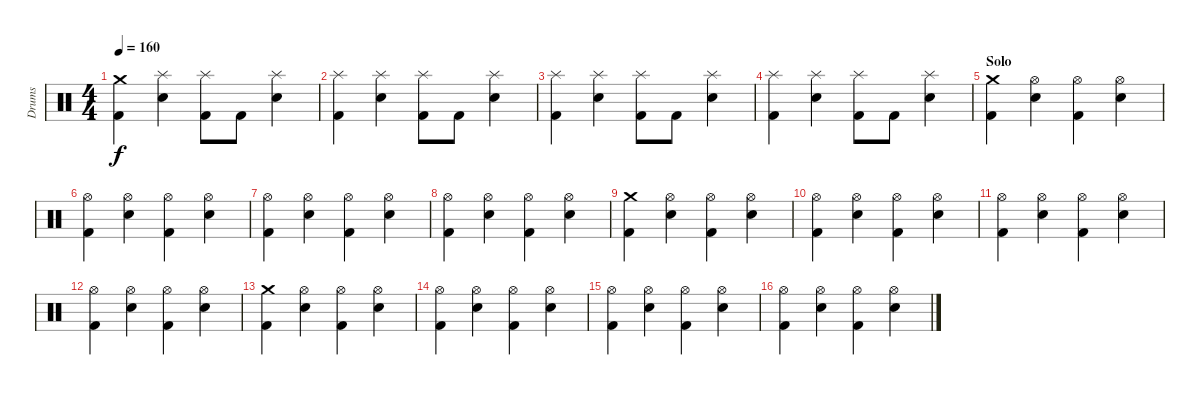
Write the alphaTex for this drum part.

\track ("Drums" "Drums") {instrument percussion}
\staff {score}
\articulation defaults
\ts (4 4)
\tempo 160
\clef neutral
\ks c
("Kick (hit) 2" "Crash medium (hit)").4{dy f} ("Splash (hit)" "Electric Snare (hit)").4 ("Kick (hit) 2" "Splash (hit)").8 "Kick (hit) 2".8 ("Splash (hit)" "Electric Snare (hit)").4 |
("Kick (hit) 2" "Splash (hit)").4 ("Splash (hit)" "Electric Snare (hit)").4 ("Kick (hit) 2" "Splash (hit)").8 "Kick (hit) 2".8 ("Splash (hit)" "Electric Snare (hit)").4 |
("Kick (hit) 2" "Splash (hit)").4 ("Electric Snare (hit)" "Splash (hit)").4 ("Kick (hit) 2" "Splash (hit)").8 "Kick (hit) 2".8 ("Electric Snare (hit)" "Splash (hit)").4 |
("Kick (hit) 2" "Splash (hit)").4 ("Electric Snare (hit)" "Splash (hit)").4 ("Kick (hit) 2" "Splash (hit)").8 "Kick (hit) 2".8 ("Electric Snare (hit)" "Splash (hit)").4 |
\section ("" "Solo")
("Crash medium (hit)" "Kick (hit) 2").4 ("Hi-Hat (open)" "Electric Snare (hit)").4 ("Hi-Hat (open)" "Kick (hit) 2").4 ("Hi-Hat (open)" "Electric Snare (hit)").4 |
("Hi-Hat (open)" "Kick (hit) 2").4 ("Hi-Hat (open)" "Electric Snare (hit)").4 ("Hi-Hat (open)" "Kick (hit) 2").4 ("Hi-Hat (open)" "Electric Snare (hit)").4 |
("Kick (hit) 2" "Hi-Hat (open)").4 ("Electric Snare (hit)" "Hi-Hat (open)").4 ("Kick (hit) 2" "Hi-Hat (open)").4 ("Electric Snare (hit)" "Hi-Hat (open)").4 |
("Kick (hit) 2" "Hi-Hat (open)").4 ("Electric Snare (hit)" "Hi-Hat (open)").4 ("Kick (hit) 2" "Hi-Hat (open)").4 ("Electric Snare (hit)" "Hi-Hat (open)").4 |
("Crash medium (hit)" "Kick (hit) 2").4 ("Hi-Hat (open)" "Electric Snare (hit)").4 ("Hi-Hat (open)" "Kick (hit) 2").4 ("Hi-Hat (open)" "Electric Snare (hit)").4 |
("Hi-Hat (open)" "Kick (hit) 2").4 ("Hi-Hat (open)" "Electric Snare (hit)").4 ("Hi-Hat (open)" "Kick (hit) 2").4 ("Hi-Hat (open)" "Electric Snare (hit)").4 |
("Kick (hit) 2" "Hi-Hat (open)").4 ("Electric Snare (hit)" "Hi-Hat (open)").4 ("Kick (hit) 2" "Hi-Hat (open)").4 ("Electric Snare (hit)" "Hi-Hat (open)").4 |
("Kick (hit) 2" "Hi-Hat (open)").4 ("Electric Snare (hit)" "Hi-Hat (open)").4 ("Kick (hit) 2" "Hi-Hat (open)").4 ("Electric Snare (hit)" "Hi-Hat (open)").4 |
("Crash medium (hit)" "Kick (hit) 2").4 ("Hi-Hat (open)" "Electric Snare (hit)").4 ("Hi-Hat (open)" "Kick (hit) 2").4 ("Hi-Hat (open)" "Electric Snare (hit)").4 |
("Hi-Hat (open)" "Kick (hit) 2").4 ("Hi-Hat (open)" "Electric Snare (hit)").4 ("Hi-Hat (open)" "Kick (hit) 2").4 ("Hi-Hat (open)" "Electric Snare (hit)").4 |
("Kick (hit) 2" "Hi-Hat (open)").4 ("Electric Snare (hit)" "Hi-Hat (open)").4 ("Kick (hit) 2" "Hi-Hat (open)").4 ("Electric Snare (hit)" "Hi-Hat (open)").4 |
("Kick (hit) 2" "Hi-Hat (open)").4 ("Electric Snare (hit)" "Hi-Hat (open)").4 ("Kick (hit) 2" "Hi-Hat (open)").4 ("Electric Snare (hit)" "Hi-Hat (open)").4
